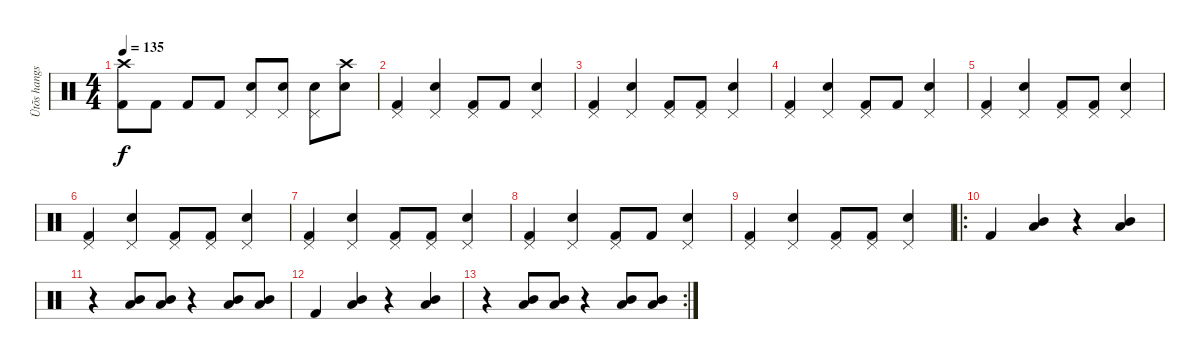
\track ("Ütõs hangszer" "Ütõs hangs") {instrument percussion}
\staff {score}
\articulation defaults
\ts (4 4)
\tempo 135
\clef neutral
\ks c
("Crash high (hit)" "Kick (hit) 2").8{dy f} "Kick (hit) 2".8 "Kick (hit) 2".8 "Kick (hit) 2".8 ("Pedal Hi-Hat (hit)" "Electric Snare (hit)").8 ("Pedal Hi-Hat (hit)" "Electric Snare (hit)").8 ("Pedal Hi-Hat (hit)" "Electric Snare (hit)").8 ("Crash high (hit)" "Electric Snare (hit)").8 |
("Pedal Hi-Hat (hit)" "Kick (hit) 2").4 ("Pedal Hi-Hat (hit)" "Electric Snare (hit)").4 ("Pedal Hi-Hat (hit)" "Kick (hit) 2").8 "Kick (hit) 2".8 ("Pedal Hi-Hat (hit)" "Electric Snare (hit)").4 |
("Pedal Hi-Hat (hit)" "Kick (hit) 2").4 ("Pedal Hi-Hat (hit)" "Electric Snare (hit)").4 ("Pedal Hi-Hat (hit)" "Kick (hit) 2").8 ("Pedal Hi-Hat (hit)" "Kick (hit) 2").8 ("Pedal Hi-Hat (hit)" "Electric Snare (hit)").4 |
("Pedal Hi-Hat (hit)" "Kick (hit) 2").4 ("Pedal Hi-Hat (hit)" "Electric Snare (hit)").4 ("Pedal Hi-Hat (hit)" "Kick (hit) 2").8 "Kick (hit) 2".8 ("Pedal Hi-Hat (hit)" "Electric Snare (hit)").4 |
("Pedal Hi-Hat (hit)" "Kick (hit) 2").4 ("Pedal Hi-Hat (hit)" "Electric Snare (hit)").4 ("Pedal Hi-Hat (hit)" "Kick (hit) 2").8 ("Pedal Hi-Hat (hit)" "Kick (hit) 2").8 ("Pedal Hi-Hat (hit)" "Electric Snare (hit)").4 |
("Pedal Hi-Hat (hit)" "Kick (hit) 2").4 ("Pedal Hi-Hat (hit)" "Electric Snare (hit)").4 ("Pedal Hi-Hat (hit)" "Kick (hit) 2").8 ("Pedal Hi-Hat (hit)" "Kick (hit) 2").8 ("Pedal Hi-Hat (hit)" "Electric Snare (hit)").4 |
("Pedal Hi-Hat (hit)" "Kick (hit) 2").4 ("Pedal Hi-Hat (hit)" "Electric Snare (hit)").4 ("Pedal Hi-Hat (hit)" "Kick (hit) 2").8 ("Pedal Hi-Hat (hit)" "Kick (hit) 2").8 ("Pedal Hi-Hat (hit)" "Electric Snare (hit)").4 |
("Pedal Hi-Hat (hit)" "Kick (hit) 2").4 ("Pedal Hi-Hat (hit)" "Electric Snare (hit)").4 ("Pedal Hi-Hat (hit)" "Kick (hit) 2").8 "Kick (hit) 2".8 ("Pedal Hi-Hat (hit)" "Electric Snare (hit)").4 |
("Pedal Hi-Hat (hit)" "Kick (hit) 2").4 ("Pedal Hi-Hat (hit)" "Electric Snare (hit)").4 ("Pedal Hi-Hat (hit)" "Kick (hit) 2").8 ("Pedal Hi-Hat (hit)" "Kick (hit) 2").8 ("Pedal Hi-Hat (hit)" "Electric Snare (hit)").4 |
\ro "Kick (hit) 2".4
("Mid Tom (hit)" "Low Tom (hit)").4 r.4 ("Mid Tom (hit)" "Low Tom (hit)").4 |
r.4 ("Mid Tom (hit)" "Low Tom (hit)").8 ("Mid Tom (hit)" "Low Tom (hit)").8 r.4 ("Mid Tom (hit)" "Low Tom (hit)").8 ("Mid Tom (hit)" "Low Tom (hit)").8 |
"Kick (hit) 2".4 ("Mid Tom (hit)" "Low Tom (hit)").4 r.4 ("Mid Tom (hit)" "Low Tom (hit)").4 |
\rc 2
r.4 ("Mid Tom (hit)" "Low Tom (hit)").8 ("Mid Tom (hit)" "Low Tom (hit)").8 r.4 ("Mid Tom (hit)" "Low Tom (hit)").8 ("Mid Tom (hit)" "Low Tom (hit)").8
